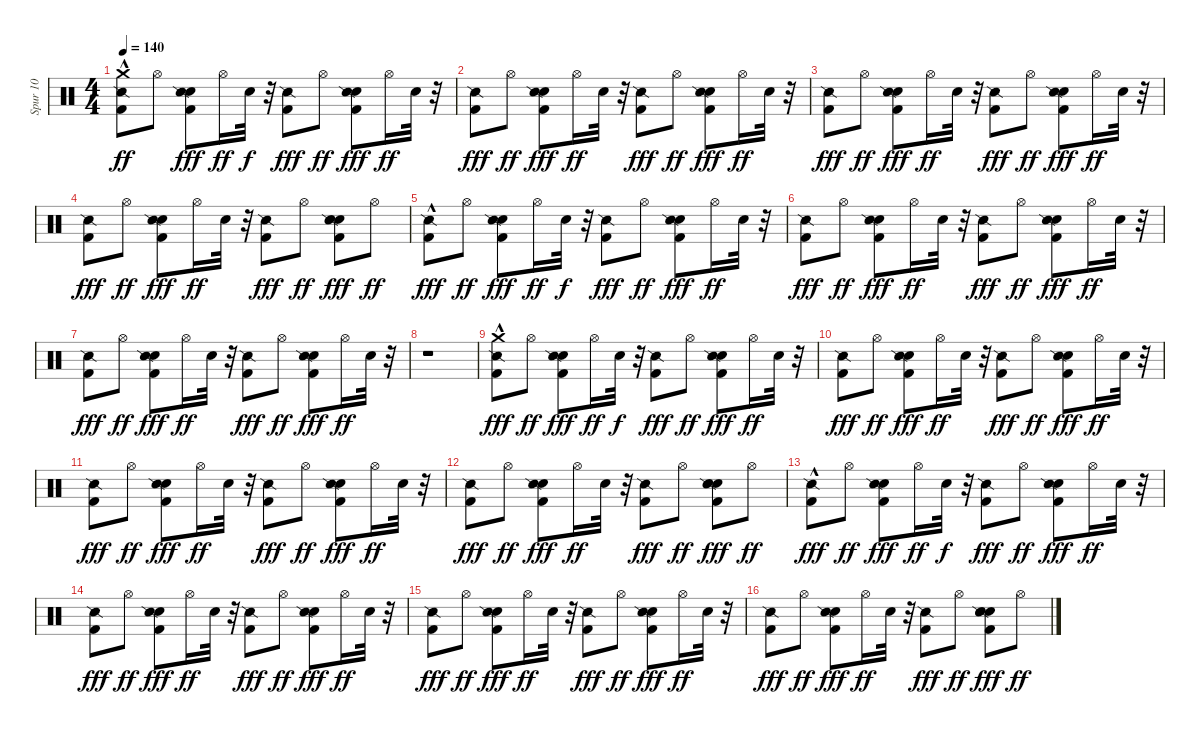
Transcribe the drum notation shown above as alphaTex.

\track ("Spur 10" "Spur 10") {instrument percussion}
\staff {score}
\articulation defaults
\ts (4 4)
\tempo 140
\clef neutral
\ks c
("Kick (hit) 2"{hac} "Snare (side stick) 2" "Crash medium (hit)").8{dy ff} "Hi-Hat (open)".8 ("Kick (hit) 2" "Hand Clap (hit)" "Snare (side stick) 2").8{dy fff} "Hi-Hat (open)".16{dy ff} "Snare (hit) 2".32{dy f} r.32 ("Kick (hit) 2" "Snare (side stick) 2").8{dy fff} "Hi-Hat (open)".8{dy ff} ("Kick (hit) 2" "Hand Clap (hit)" "Snare (side stick) 2").8{dy fff} "Hi-Hat (open)".16{dy ff} "Snare (hit) 2".32 r.32 |
("Kick (hit) 2" "Snare (side stick) 2").8{dy fff} "Hi-Hat (open)".8{dy ff} ("Kick (hit) 2" "Hand Clap (hit)" "Snare (side stick) 2").8{dy fff} "Hi-Hat (open)".16{dy ff} "Snare (hit) 2".32 r.32 ("Kick (hit) 2" "Snare (side stick) 2").8{dy fff} "Hi-Hat (open)".8{dy ff} ("Kick (hit) 2" "Hand Clap (hit)" "Snare (side stick) 2").8{dy fff} "Hi-Hat (open)".16{dy ff} "Snare (hit) 2".32 r.32 |
("Kick (hit) 2" "Snare (side stick) 2").8{dy fff} "Hi-Hat (open)".8{dy ff} ("Kick (hit) 2" "Hand Clap (hit)" "Snare (side stick) 2").8{dy fff} "Hi-Hat (open)".16{dy ff} "Snare (hit) 2".32 r.32 ("Kick (hit) 2" "Snare (side stick) 2").8{dy fff} "Hi-Hat (open)".8{dy ff} ("Kick (hit) 2" "Hand Clap (hit)" "Snare (side stick) 2").8{dy fff} "Hi-Hat (open)".16{dy ff} "Snare (hit) 2".32 r.32 |
("Kick (hit) 2" "Snare (side stick) 2").8{dy fff} "Hi-Hat (open)".8{dy ff} ("Kick (hit) 2" "Hand Clap (hit)" "Snare (side stick) 2").8{dy fff} "Hi-Hat (open)".16{dy ff} "Snare (hit) 2".32 r.32 ("Kick (hit) 2" "Snare (side stick) 2").8{dy fff} "Hi-Hat (open)".8{dy ff} ("Kick (hit) 2" "Hand Clap (hit)" "Snare (hit) 2" "Snare (side stick) 2").8{dy fff} "Hi-Hat (open)".8{dy ff} |
("Kick (hit) 2"{hac} "Snare (side stick) 2").8{dy fff} "Hi-Hat (open)".8{dy ff} ("Kick (hit) 2" "Hand Clap (hit)" "Snare (side stick) 2").8{dy fff} "Hi-Hat (open)".16{dy ff} "Snare (hit) 2".32{dy f} r.32 ("Kick (hit) 2" "Snare (side stick) 2").8{dy fff} "Hi-Hat (open)".8{dy ff} ("Kick (hit) 2" "Hand Clap (hit)" "Snare (side stick) 2").8{dy fff} "Hi-Hat (open)".16{dy ff} "Snare (hit) 2".32 r.32 |
("Kick (hit) 2" "Snare (side stick) 2").8{dy fff} "Hi-Hat (open)".8{dy ff} ("Kick (hit) 2" "Hand Clap (hit)" "Snare (side stick) 2").8{dy fff} "Hi-Hat (open)".16{dy ff} "Snare (hit) 2".32 r.32 ("Kick (hit) 2" "Snare (side stick) 2").8{dy fff} "Hi-Hat (open)".8{dy ff} ("Kick (hit) 2" "Hand Clap (hit)" "Snare (side stick) 2").8{dy fff} "Hi-Hat (open)".16{dy ff} "Snare (hit) 2".32 r.32 |
("Kick (hit) 2" "Snare (side stick) 2").8{dy fff} "Hi-Hat (open)".8{dy ff} ("Kick (hit) 2" "Hand Clap (hit)" "Snare (side stick) 2").8{dy fff} "Hi-Hat (open)".16{dy ff} "Snare (hit) 2".32 r.32 ("Kick (hit) 2" "Snare (side stick) 2").8{dy fff} "Hi-Hat (open)".8{dy ff} ("Kick (hit) 2" "Hand Clap (hit)" "Snare (side stick) 2").8{dy fff} "Hi-Hat (open)".16{dy ff} "Snare (hit) 2".32 r.32 |
r.1 |
("Kick (hit) 2"{hac} "Snare (side stick) 2" "Crash medium (hit)").8{dy fff} "Hi-Hat (open)".8{dy ff} ("Kick (hit) 2" "Hand Clap (hit)" "Snare (side stick) 2").8{dy fff} "Hi-Hat (open)".16{dy ff} "Snare (hit) 2".32{dy f} r.32 ("Kick (hit) 2" "Snare (side stick) 2").8{dy fff} "Hi-Hat (open)".8{dy ff} ("Kick (hit) 2" "Hand Clap (hit)" "Snare (side stick) 2").8{dy fff} "Hi-Hat (open)".16{dy ff} "Snare (hit) 2".32 r.32 |
("Kick (hit) 2" "Snare (side stick) 2").8{dy fff} "Hi-Hat (open)".8{dy ff} ("Kick (hit) 2" "Hand Clap (hit)" "Snare (side stick) 2").8{dy fff} "Hi-Hat (open)".16{dy ff} "Snare (hit) 2".32 r.32 ("Kick (hit) 2" "Snare (side stick) 2").8{dy fff} "Hi-Hat (open)".8{dy ff} ("Kick (hit) 2" "Hand Clap (hit)" "Snare (side stick) 2").8{dy fff} "Hi-Hat (open)".16{dy ff} "Snare (hit) 2".32 r.32 |
("Kick (hit) 2" "Snare (side stick) 2").8{dy fff} "Hi-Hat (open)".8{dy ff} ("Kick (hit) 2" "Hand Clap (hit)" "Snare (side stick) 2").8{dy fff} "Hi-Hat (open)".16{dy ff} "Snare (hit) 2".32 r.32 ("Kick (hit) 2" "Snare (side stick) 2").8{dy fff} "Hi-Hat (open)".8{dy ff} ("Kick (hit) 2" "Hand Clap (hit)" "Snare (side stick) 2").8{dy fff} "Hi-Hat (open)".16{dy ff} "Snare (hit) 2".32 r.32 |
("Kick (hit) 2" "Snare (side stick) 2").8{dy fff} "Hi-Hat (open)".8{dy ff} ("Kick (hit) 2" "Hand Clap (hit)" "Snare (side stick) 2").8{dy fff} "Hi-Hat (open)".16{dy ff} "Snare (hit) 2".32 r.32 ("Kick (hit) 2" "Snare (side stick) 2").8{dy fff} "Hi-Hat (open)".8{dy ff} ("Kick (hit) 2" "Hand Clap (hit)" "Snare (hit) 2" "Snare (side stick) 2").8{dy fff} "Hi-Hat (open)".8{dy ff} |
("Kick (hit) 2"{hac} "Snare (side stick) 2").8{dy fff} "Hi-Hat (open)".8{dy ff} ("Kick (hit) 2" "Hand Clap (hit)" "Snare (side stick) 2").8{dy fff} "Hi-Hat (open)".16{dy ff} "Snare (hit) 2".32{dy f} r.32 ("Kick (hit) 2" "Snare (side stick) 2").8{dy fff} "Hi-Hat (open)".8{dy ff} ("Kick (hit) 2" "Hand Clap (hit)" "Snare (side stick) 2").8{dy fff} "Hi-Hat (open)".16{dy ff} "Snare (hit) 2".32 r.32 |
("Kick (hit) 2" "Snare (side stick) 2").8{dy fff} "Hi-Hat (open)".8{dy ff} ("Kick (hit) 2" "Hand Clap (hit)" "Snare (side stick) 2").8{dy fff} "Hi-Hat (open)".16{dy ff} "Snare (hit) 2".32 r.32 ("Kick (hit) 2" "Snare (side stick) 2").8{dy fff} "Hi-Hat (open)".8{dy ff} ("Kick (hit) 2" "Hand Clap (hit)" "Snare (side stick) 2").8{dy fff} "Hi-Hat (open)".16{dy ff} "Snare (hit) 2".32 r.32 |
("Kick (hit) 2" "Snare (side stick) 2").8{dy fff} "Hi-Hat (open)".8{dy ff} ("Kick (hit) 2" "Hand Clap (hit)" "Snare (side stick) 2").8{dy fff} "Hi-Hat (open)".16{dy ff} "Snare (hit) 2".32 r.32 ("Kick (hit) 2" "Snare (side stick) 2").8{dy fff} "Hi-Hat (open)".8{dy ff} ("Kick (hit) 2" "Hand Clap (hit)" "Snare (side stick) 2").8{dy fff} "Hi-Hat (open)".16{dy ff} "Snare (hit) 2".32 r.32 |
("Kick (hit) 2" "Snare (side stick) 2").8{dy fff} "Hi-Hat (open)".8{dy ff} ("Kick (hit) 2" "Hand Clap (hit)" "Snare (side stick) 2").8{dy fff} "Hi-Hat (open)".16{dy ff} "Snare (hit) 2".32 r.32 ("Kick (hit) 2" "Snare (side stick) 2").8{dy fff} "Hi-Hat (open)".8{dy ff} ("Kick (hit) 2" "Hand Clap (hit)" "Snare (hit) 2" "Snare (side stick) 2").8{dy fff} "Hi-Hat (open)".8{dy ff}
